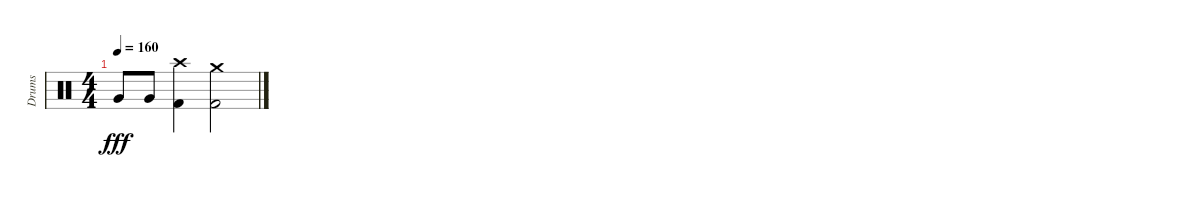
\track ("Drums" "Drums") {instrument percussion}
\staff {score}
\articulation defaults
\ts (4 4)
\tempo 160
\clef neutral
\ks c "Very Low Tom (hit)".8{dy fff} "Very Low Tom (hit)".8
("Crash high (hit)" "Kick (hit) 2").4 ("Crash medium (hit)" "Kick (hit) 2").2
